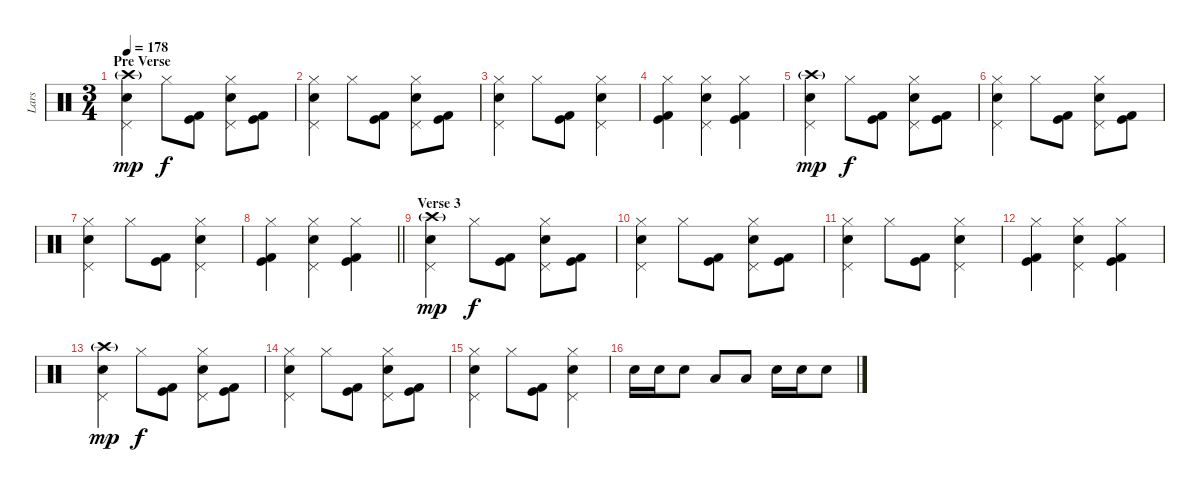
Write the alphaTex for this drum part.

\track ("Lars" "Lars") {instrument percussion}
\staff {score}
\articulation defaults
\ts (3 4)
\section ("" "Pre Verse")
\tempo 178
\clef neutral
\ks c
("Crash high (hit)"{g} "Pedal Hi-Hat (hit)" "Electric Snare (hit)").4{dy mp} "Hi-Hat (closed)".8{dy f} ("Kick (hit)" "Kick (hit) 2").8 ("Hi-Hat (closed)" "Pedal Hi-Hat (hit)" "Electric Snare (hit)").8 ("Kick (hit)" "Kick (hit) 2").8 |
("Hi-Hat (closed)" "Pedal Hi-Hat (hit)" "Electric Snare (hit)").4 "Hi-Hat (closed)".8 ("Kick (hit)" "Kick (hit) 2").8 ("Hi-Hat (closed)" "Pedal Hi-Hat (hit)" "Electric Snare (hit)").8 ("Kick (hit)" "Kick (hit) 2").8 |
("Hi-Hat (closed)" "Pedal Hi-Hat (hit)" "Electric Snare (hit)").4 "Hi-Hat (closed)".8 ("Kick (hit)" "Kick (hit) 2").8 ("Hi-Hat (closed)" "Pedal Hi-Hat (hit)" "Electric Snare (hit)").4 |
("Hi-Hat (closed)" "Kick (hit)" "Kick (hit) 2").4 ("Hi-Hat (closed)" "Pedal Hi-Hat (hit)" "Electric Snare (hit)").4 ("Hi-Hat (closed)" "Kick (hit)" "Kick (hit) 2").4 |
("Crash high (hit)"{g} "Pedal Hi-Hat (hit)" "Electric Snare (hit)").4{dy mp} "Hi-Hat (closed)".8{dy f} ("Kick (hit)" "Kick (hit) 2").8 ("Hi-Hat (closed)" "Pedal Hi-Hat (hit)" "Electric Snare (hit)").8 ("Kick (hit)" "Kick (hit) 2").8 |
("Hi-Hat (closed)" "Pedal Hi-Hat (hit)" "Electric Snare (hit)").4 "Hi-Hat (closed)".8 ("Kick (hit)" "Kick (hit) 2").8 ("Hi-Hat (closed)" "Pedal Hi-Hat (hit)" "Electric Snare (hit)").8 ("Kick (hit)" "Kick (hit) 2").8 |
("Hi-Hat (closed)" "Pedal Hi-Hat (hit)" "Electric Snare (hit)").4 "Hi-Hat (closed)".8 ("Kick (hit)" "Kick (hit) 2").8 ("Hi-Hat (closed)" "Pedal Hi-Hat (hit)" "Electric Snare (hit)").4 |
\barLineRight lightlight
("Hi-Hat (closed)" "Kick (hit)" "Kick (hit) 2").4 ("Hi-Hat (closed)" "Pedal Hi-Hat (hit)" "Electric Snare (hit)").4 ("Hi-Hat (closed)" "Kick (hit)" "Kick (hit) 2").4 |
\section ("" "Verse 3")
("Crash high (hit)"{g} "Pedal Hi-Hat (hit)" "Electric Snare (hit)").4{dy mp} "Hi-Hat (closed)".8{dy f} ("Kick (hit)" "Kick (hit) 2").8 ("Hi-Hat (closed)" "Pedal Hi-Hat (hit)" "Electric Snare (hit)").8 ("Kick (hit)" "Kick (hit) 2").8 |
("Hi-Hat (closed)" "Pedal Hi-Hat (hit)" "Electric Snare (hit)").4 "Hi-Hat (closed)".8 ("Kick (hit)" "Kick (hit) 2").8 ("Hi-Hat (closed)" "Pedal Hi-Hat (hit)" "Electric Snare (hit)").8 ("Kick (hit)" "Kick (hit) 2").8 |
("Hi-Hat (closed)" "Pedal Hi-Hat (hit)" "Electric Snare (hit)").4 "Hi-Hat (closed)".8 ("Kick (hit)" "Kick (hit) 2").8 ("Hi-Hat (closed)" "Pedal Hi-Hat (hit)" "Electric Snare (hit)").4 |
("Hi-Hat (closed)" "Kick (hit)" "Kick (hit) 2").4 ("Hi-Hat (closed)" "Pedal Hi-Hat (hit)" "Electric Snare (hit)").4 ("Hi-Hat (closed)" "Kick (hit)" "Kick (hit) 2").4 |
("Crash high (hit)"{g} "Pedal Hi-Hat (hit)" "Electric Snare (hit)").4{dy mp} "Hi-Hat (closed)".8{dy f} ("Kick (hit)" "Kick (hit) 2").8 ("Hi-Hat (closed)" "Pedal Hi-Hat (hit)" "Electric Snare (hit)").8 ("Kick (hit)" "Kick (hit) 2").8 |
("Hi-Hat (closed)" "Pedal Hi-Hat (hit)" "Electric Snare (hit)").4 "Hi-Hat (closed)".8 ("Kick (hit)" "Kick (hit) 2").8 ("Hi-Hat (closed)" "Pedal Hi-Hat (hit)" "Electric Snare (hit)").8 ("Kick (hit)" "Kick (hit) 2").8 |
("Hi-Hat (closed)" "Pedal Hi-Hat (hit)" "Electric Snare (hit)").4 "Hi-Hat (closed)".8 ("Kick (hit)" "Kick (hit) 2").8 ("Hi-Hat (closed)" "Pedal Hi-Hat (hit)" "Electric Snare (hit)").4 |
"Electric Snare (hit)".16 "Electric Snare (hit)".16 "Electric Snare (hit)".8 "Low Tom (hit)".8 "Low Tom (hit)".8 "Electric Snare (hit)".16 "Electric Snare (hit)".16 "Electric Snare (hit)".8
